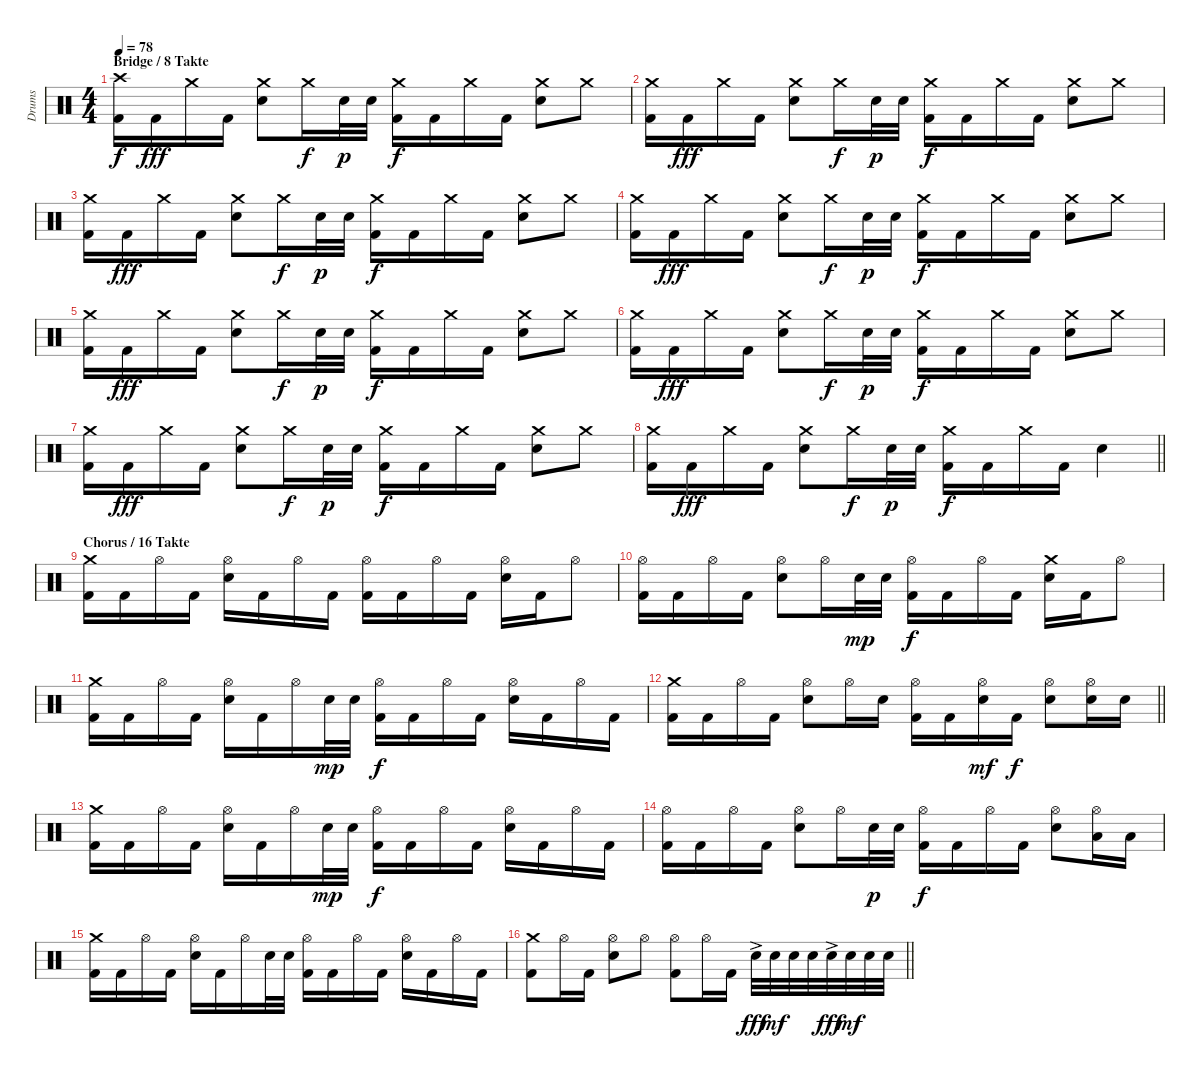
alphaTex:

\track ("Drums" "Drums") {instrument percussion}
\staff {score}
\articulation defaults
\ts (4 4)
\section ("" "Bridge / 8 Takte")
\tempo 78
\clef neutral
\ks c
("Crash high (hit)" "Kick (hit) 2").16{dy f} "Kick (hit) 2".16{dy fff} "Crash medium (hit)".16 "Kick (hit) 2".16 ("Crash medium (hit)" "Electric Snare (hit)").8 "Crash medium (hit)".16{dy f} "Electric Snare (hit)".32{dy p} "Electric Snare (hit)".32 ("Crash medium (hit)" "Kick (hit) 2").16{dy f} "Kick (hit) 2".16 "Crash medium (hit)".16 "Kick (hit) 2".16 ("Crash medium (hit)" "Electric Snare (hit)").8 "Crash medium (hit)".8 |
("Crash medium (hit)" "Kick (hit) 2").16 "Kick (hit) 2".16{dy fff} "Crash medium (hit)".16 "Kick (hit) 2".16 ("Crash medium (hit)" "Electric Snare (hit)").8 "Crash medium (hit)".16{dy f} "Electric Snare (hit)".32{dy p} "Electric Snare (hit)".32 ("Crash medium (hit)" "Kick (hit) 2").16{dy f} "Kick (hit) 2".16 "Crash medium (hit)".16 "Kick (hit) 2".16 ("Crash medium (hit)" "Electric Snare (hit)").8 "Crash medium (hit)".8 |
("Crash medium (hit)" "Kick (hit) 2").16 "Kick (hit) 2".16{dy fff} "Crash medium (hit)".16 "Kick (hit) 2".16 ("Crash medium (hit)" "Electric Snare (hit)").8 "Crash medium (hit)".16{dy f} "Electric Snare (hit)".32{dy p} "Electric Snare (hit)".32 ("Crash medium (hit)" "Kick (hit) 2").16{dy f} "Kick (hit) 2".16 "Crash medium (hit)".16 "Kick (hit) 2".16 ("Crash medium (hit)" "Electric Snare (hit)").8 "Crash medium (hit)".8 |
("Crash medium (hit)" "Kick (hit) 2").16 "Kick (hit) 2".16{dy fff} "Crash medium (hit)".16 "Kick (hit) 2".16 ("Crash medium (hit)" "Electric Snare (hit)").8 "Crash medium (hit)".16{dy f} "Electric Snare (hit)".32{dy p} "Electric Snare (hit)".32 ("Crash medium (hit)" "Kick (hit) 2").16{dy f} "Kick (hit) 2".16 "Crash medium (hit)".16 "Kick (hit) 2".16 ("Crash medium (hit)" "Electric Snare (hit)").8 "Crash medium (hit)".8 |
("Crash medium (hit)" "Kick (hit) 2").16 "Kick (hit) 2".16{dy fff} "Crash medium (hit)".16 "Kick (hit) 2".16 ("Crash medium (hit)" "Electric Snare (hit)").8 "Crash medium (hit)".16{dy f} "Electric Snare (hit)".32{dy p} "Electric Snare (hit)".32 ("Crash medium (hit)" "Kick (hit) 2").16{dy f} "Kick (hit) 2".16 "Crash medium (hit)".16 "Kick (hit) 2".16 ("Crash medium (hit)" "Electric Snare (hit)").8 "Crash medium (hit)".8 |
("Crash medium (hit)" "Kick (hit) 2").16 "Kick (hit) 2".16{dy fff} "Crash medium (hit)".16 "Kick (hit) 2".16 ("Crash medium (hit)" "Electric Snare (hit)").8 "Crash medium (hit)".16{dy f} "Electric Snare (hit)".32{dy p} "Electric Snare (hit)".32 ("Crash medium (hit)" "Kick (hit) 2").16{dy f} "Kick (hit) 2".16 "Crash medium (hit)".16 "Kick (hit) 2".16 ("Crash medium (hit)" "Electric Snare (hit)").8 "Crash medium (hit)".8 |
("Crash medium (hit)" "Kick (hit) 2").16 "Kick (hit) 2".16{dy fff} "Crash medium (hit)".16 "Kick (hit) 2".16 ("Crash medium (hit)" "Electric Snare (hit)").8 "Crash medium (hit)".16{dy f} "Electric Snare (hit)".32{dy p} "Electric Snare (hit)".32 ("Crash medium (hit)" "Kick (hit) 2").16{dy f} "Kick (hit) 2".16 "Crash medium (hit)".16 "Kick (hit) 2".16 ("Crash medium (hit)" "Electric Snare (hit)").8 "Crash medium (hit)".8 |
\barLineRight lightlight
("Crash medium (hit)" "Kick (hit) 2").16 "Kick (hit) 2".16{dy fff} "Crash medium (hit)".16 "Kick (hit) 2".16 ("Crash medium (hit)" "Electric Snare (hit)").8 "Crash medium (hit)".16{dy f} "Electric Snare (hit)".32{dy p} "Electric Snare (hit)".32 ("Crash medium (hit)" "Kick (hit) 2").16{dy f} "Kick (hit) 2".16 "Crash medium (hit)".16 "Kick (hit) 2".16 "Electric Snare (hit)".4 |
\section ("" "Chorus / 16 Takte")
("Crash medium (hit)" "Kick (hit) 2").16 "Kick (hit) 2".16 "Hi-Hat (open)".16 "Kick (hit) 2".16 ("Hi-Hat (open)" "Electric Snare (hit)").16 "Kick (hit) 2".16 "Hi-Hat (open)".16 "Kick (hit) 2".16 ("Hi-Hat (open)" "Kick (hit) 2").16 "Kick (hit) 2".16 "Hi-Hat (open)".16 "Kick (hit) 2".16 ("Hi-Hat (open)" "Electric Snare (hit)").16 "Kick (hit) 2".16 "Hi-Hat (open)".8 |
("Hi-Hat (open)" "Kick (hit) 2").16 "Kick (hit) 2".16 "Hi-Hat (open)".16 "Kick (hit) 2".16 ("Hi-Hat (open)" "Electric Snare (hit)").8 "Hi-Hat (open)".16 "Electric Snare (hit)".32{dy mp} "Electric Snare (hit)".32 ("Hi-Hat (open)" "Kick (hit) 2").16{dy f} "Kick (hit) 2".16 "Hi-Hat (open)".16 "Kick (hit) 2".16 ("Crash medium (hit)" "Electric Snare (hit)").16 "Kick (hit) 2".16 "Hi-Hat (open)".8 |
("Crash medium (hit)" "Kick (hit) 2").16 "Kick (hit) 2".16 "Hi-Hat (open)".16 "Kick (hit) 2".16 ("Hi-Hat (open)" "Electric Snare (hit)").16 "Kick (hit) 2".16 "Hi-Hat (open)".16 "Electric Snare (hit)".32{dy mp} "Electric Snare (hit)".32 ("Hi-Hat (open)" "Kick (hit) 2").16{dy f} "Kick (hit) 2".16 "Hi-Hat (open)".16 "Kick (hit) 2".16 ("Hi-Hat (open)" "Electric Snare (hit)").16 "Kick (hit) 2".16 "Hi-Hat (open)".16 "Kick (hit) 2".16 |
\barLineRight lightlight
("Crash medium (hit)" "Kick (hit) 2").16 "Kick (hit) 2".16 "Hi-Hat (open)".16 "Kick (hit) 2".16 ("Hi-Hat (open)" "Electric Snare (hit)").8 "Hi-Hat (open)".16 "Electric Snare (hit)".16 ("Hi-Hat (open)" "Kick (hit) 2").16 "Kick (hit) 2".16 ("Hi-Hat (open)" "Electric Snare (hit)").16{dy mf} "Kick (hit) 2".16{dy f} ("Hi-Hat (open)" "Electric Snare (hit)").8 ("Hi-Hat (open)" "Electric Snare (hit)").16 "Electric Snare (hit)".16 |
("Crash medium (hit)" "Kick (hit) 2").16 "Kick (hit) 2".16 "Hi-Hat (open)".16 "Kick (hit) 2".16 ("Hi-Hat (open)" "Electric Snare (hit)").16 "Kick (hit) 2".16 "Hi-Hat (open)".16 "Electric Snare (hit)".32{dy mp} "Electric Snare (hit)".32 ("Hi-Hat (open)" "Kick (hit) 2").16{dy f} "Kick (hit) 2".16 "Hi-Hat (open)".16 "Kick (hit) 2".16 ("Hi-Hat (open)" "Electric Snare (hit)").16 "Kick (hit) 2".16 "Hi-Hat (open)".16 "Kick (hit) 2".16 |
("Hi-Hat (open)" "Kick (hit) 2").16 "Kick (hit) 2".16 "Hi-Hat (open)".16 "Kick (hit) 2".16 ("Hi-Hat (open)" "Electric Snare (hit)").8 "Hi-Hat (open)".16 "Electric Snare (hit)".32{dy p} "Electric Snare (hit)".32 ("Hi-Hat (open)" "Kick (hit) 2").16{dy f} "Kick (hit) 2".16 "Hi-Hat (open)".16 "Kick (hit) 2".16 ("Hi-Hat (open)" "Electric Snare (hit)").8 ("Hi-Hat (open)" "Low Tom (hit)").16 "Low Tom (hit)".16 |
("Crash medium (hit)" "Kick (hit) 2").16 "Kick (hit) 2".16 "Hi-Hat (open)".16 "Kick (hit) 2".16 ("Hi-Hat (open)" "Electric Snare (hit)").16 "Kick (hit) 2".16 "Hi-Hat (open)".16 "Electric Snare (hit)".32 "Electric Snare (hit)".32 ("Hi-Hat (open)" "Kick (hit) 2").16 "Kick (hit) 2".16 "Hi-Hat (open)".16 "Kick (hit) 2".16 ("Hi-Hat (open)" "Electric Snare (hit)").16 "Kick (hit) 2".16 "Hi-Hat (open)".16 "Kick (hit) 2".16 |
\barLineRight lightlight
("Crash medium (hit)" "Kick (hit) 2").8 "Hi-Hat (open)".16 "Kick (hit) 2".16 ("Hi-Hat (open)" "Electric Snare (hit)").8 "Hi-Hat (open)".8 ("Hi-Hat (open)" "Kick (hit) 2").8 "Hi-Hat (open)".16 "Kick (hit) 2".16 "Electric Snare (hit)"{ac}.32{dy fff} "Electric Snare (hit)".32{dy mf} "Electric Snare (hit)".32 "Electric Snare (hit)".32 "Electric Snare (hit)"{ac}.32{dy fff} "Electric Snare (hit)".32{dy mf} "Electric Snare (hit)".32 "Electric Snare (hit)".32
